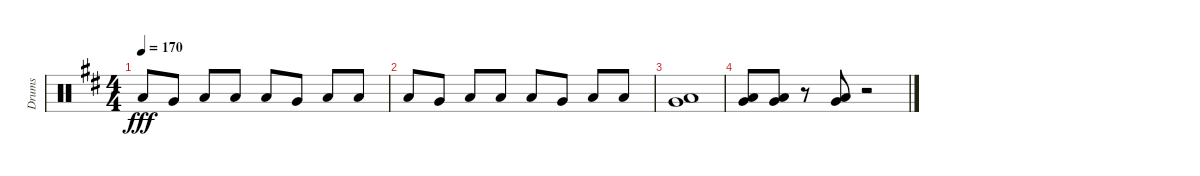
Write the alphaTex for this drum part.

\track ("Drums" "Drums") {instrument percussion}
\staff {score}
\articulation defaults
\ts (4 4)
\tempo 170
\clef neutral
\ks bminor "Low Tom (hit)".8{dy fff} "Very Low Tom (hit)".8 "Low Tom (hit)".8 "Low Floor Tom (hit)".8 "Low Tom (hit)".8 "Very Low Tom (hit)".8 "Low Tom (hit)".8 "Low Floor Tom (hit)".8
|
"Low Tom (hit)".8 "Very Low Tom (hit)".8 "Low Tom (hit)".8 "Low Floor Tom (hit)".8 "Low Tom (hit)".8 "Very Low Tom (hit)".8 "Low Tom (hit)".8 "Low Floor Tom (hit)".8 |
("Very Low Tom (hit)" "Low Floor Tom (hit)").1 |
("Very Low Tom (hit)" "Low Floor Tom (hit)").8 ("Very Low Tom (hit)" "Low Floor Tom (hit)").8 r.8 ("Very Low Tom (hit)" "Low Floor Tom (hit)").8 r.2
